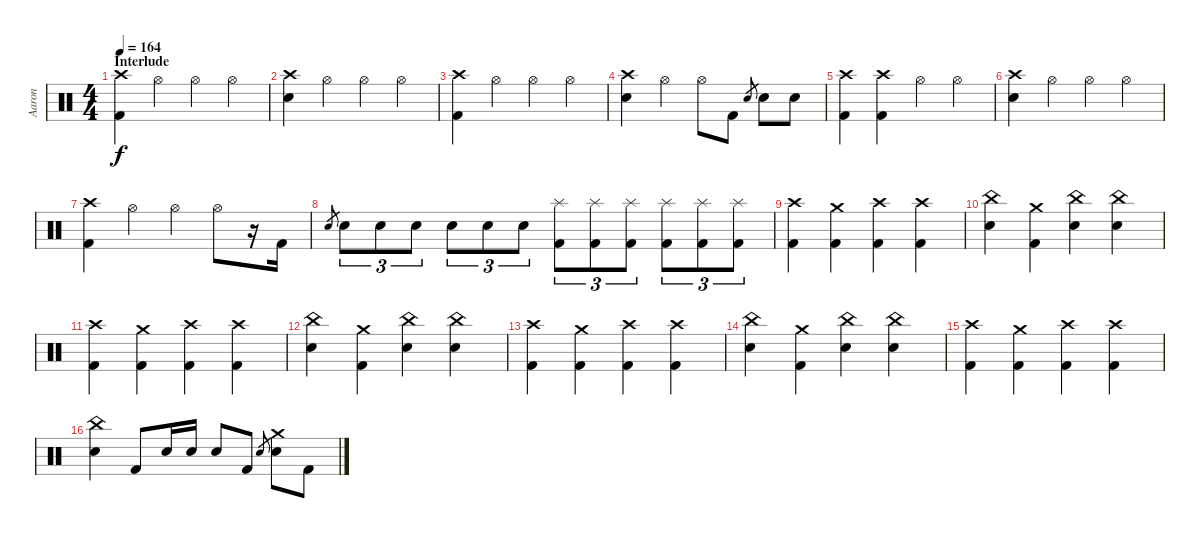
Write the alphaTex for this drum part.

\track ("Aaron" "Aaron") {instrument percussion}
\staff {score}
\articulation defaults
\ts (4 4)
\section ("" "Interlude")
\tempo 164
\clef neutral
\ks c
("Crash high (hit)" "Kick (hit) 2").4{dy f} "Hi-Hat (open)".4 "Hi-Hat (open)".4 "Hi-Hat (open)".4 |
("Crash high (hit)" "Snare (hit) 2").4 "Hi-Hat (open)".4 "Hi-Hat (open)".4 "Hi-Hat (open)".4 |
("Crash high (hit)" "Kick (hit) 2").4 "Hi-Hat (open)".4 "Hi-Hat (open)".4 "Hi-Hat (open)".4 |
("Crash high (hit)" "Snare (hit) 2").4 "Hi-Hat (open)".4 "Hi-Hat (open)".8 "Kick (hit) 2".8 "Snare (hit) 2".8{gr} "Snare (hit) 2".8 "Snare (hit) 2".8 |
("Crash high (hit)" "Kick (hit) 2").4 ("Crash high (hit)" "Kick (hit) 2").4 "Hi-Hat (open)".4 "Hi-Hat (open)".4 |
("Crash high (hit)" "Snare (hit) 2").4 "Hi-Hat (open)".4 "Hi-Hat (open)".4 "Hi-Hat (open)".4 |
("Crash high (hit)" "Kick (hit) 2").4 "Hi-Hat (open)".4 "Hi-Hat (open)".4 "Hi-Hat (open)".8 r.16 "Kick (hit) 2".16 |
"Snare (hit) 2".8{gr} "Snare (hit) 2".8{tu (3 2)} "Snare (hit) 2".8{tu (3 2)} "Snare (hit) 2".8{tu (3 2)} "Snare (hit) 2".8{tu (3 2)} "Snare (hit) 2".8{tu (3 2)} "Snare (hit) 2".8{tu (3 2)} ("Splash (hit)" "Kick (hit) 2").8{tu (3 2)} ("Splash (hit)" "Kick (hit) 2").8{tu (3 2)} ("Splash (hit)" "Kick (hit) 2").8{tu (3 2)} ("Splash (hit)" "Kick (hit) 2").8{tu (3 2)} ("Splash (hit)" "Kick (hit) 2").8{tu (3 2)} ("Splash (hit)" "Kick (hit) 2").8{tu (3 2)} |
("Crash high (hit)" "Kick (hit) 2").4 ("Crash medium (hit)" "Kick (hit) 2").4 ("Crash high (hit)" "Kick (hit) 2").4 ("Crash high (hit)" "Kick (hit) 2").4 |
("China (hit)" "Snare (hit) 2").4 ("Crash medium (hit)" "Kick (hit) 2").4 ("China (hit)" "Snare (hit) 2").4 ("China (hit)" "Snare (hit) 2").4 |
("Crash high (hit)" "Kick (hit) 2").4 ("Crash medium (hit)" "Kick (hit) 2").4 ("Crash high (hit)" "Kick (hit) 2").4 ("Crash high (hit)" "Kick (hit) 2").4 |
("China (hit)" "Snare (hit) 2").4 ("Crash medium (hit)" "Kick (hit) 2").4 ("China (hit)" "Snare (hit) 2").4 ("China (hit)" "Snare (hit) 2").4 |
("Crash high (hit)" "Kick (hit) 2").4 ("Crash medium (hit)" "Kick (hit) 2").4 ("Crash high (hit)" "Kick (hit) 2").4 ("Crash high (hit)" "Kick (hit) 2").4 |
("China (hit)" "Snare (hit) 2").4 ("Crash medium (hit)" "Kick (hit) 2").4 ("China (hit)" "Snare (hit) 2").4 ("China (hit)" "Snare (hit) 2").4 |
("Crash high (hit)" "Kick (hit) 2").4 ("Crash medium (hit)" "Kick (hit) 2").4 ("Crash high (hit)" "Kick (hit) 2").4 ("Crash high (hit)" "Kick (hit) 2").4 |
("China (hit)" "Snare (hit) 2").4 "Kick (hit) 2".8 "Snare (hit) 2".16 "Snare (hit) 2".16 "Snare (hit) 2".8 "Kick (hit) 2".8 "Snare (hit) 2".8{gr} ("Crash medium (hit)" "Snare (hit) 2").8 "Kick (hit) 2".8
